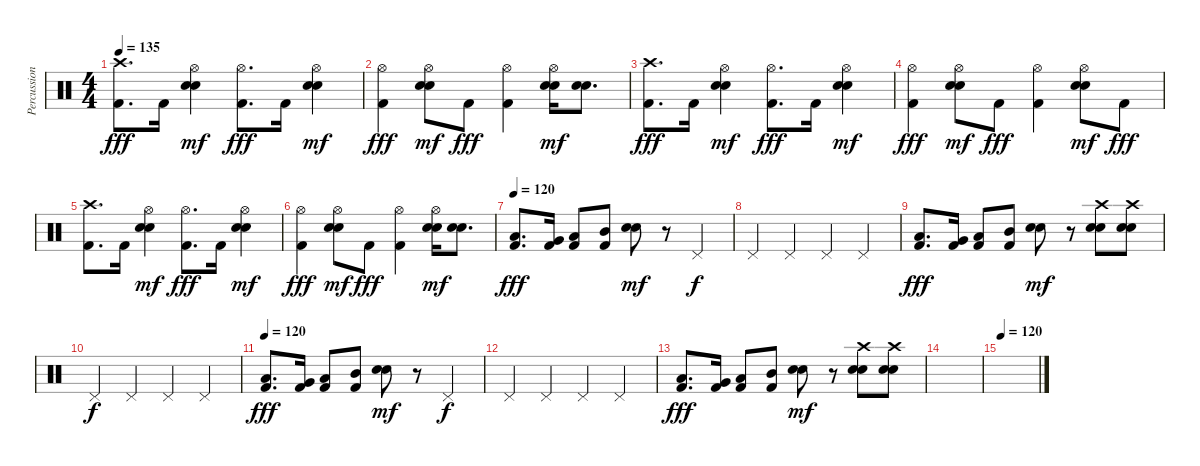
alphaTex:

\track ("Percussion" "Percussion") {instrument percussion}
\staff {score}
\articulation defaults
\ts (4 4)
\tempo 135
\clef neutral
\ks c
("Crash high (hit)" "Kick (hit) 2").8{d dy fff} "Kick (hit) 2".16 ("Hi-Hat (open)" "Electric Snare (hit)" "Snare (hit) 2").4{dy mf} ("Hi-Hat (open)" "Kick (hit) 2").8{d dy fff} "Kick (hit) 2".16 ("Hi-Hat (open)" "Electric Snare (hit)" "Snare (hit) 2").4{dy mf} |
("Hi-Hat (open)" "Kick (hit) 2").4{dy fff} ("Hi-Hat (open)" "Electric Snare (hit)" "Snare (hit) 2").8{dy mf} "Kick (hit) 2".8{dy fff} ("Hi-Hat (open)" "Kick (hit) 2").4 ("Hi-Hat (open)" "Electric Snare (hit)" "Snare (hit) 2").16{dy mf} ("Electric Snare (hit)" "Snare (hit) 2").8{d} |
("Crash high (hit)" "Kick (hit) 2").8{d dy fff} "Kick (hit) 2".16 ("Hi-Hat (open)" "Electric Snare (hit)" "Snare (hit) 2").4{dy mf} ("Hi-Hat (open)" "Kick (hit) 2").8{d dy fff} "Kick (hit) 2".16 ("Hi-Hat (open)" "Electric Snare (hit)" "Snare (hit) 2").4{dy mf} |
("Hi-Hat (open)" "Kick (hit) 2").4{dy fff} ("Hi-Hat (open)" "Electric Snare (hit)" "Snare (hit) 2").8{dy mf} "Kick (hit) 2".8{dy fff} ("Hi-Hat (open)" "Kick (hit) 2").4 ("Hi-Hat (open)" "Electric Snare (hit)" "Snare (hit) 2").8{dy mf} "Kick (hit) 2".8{dy fff} |
("Crash high (hit)" "Kick (hit) 2").8{d} "Kick (hit) 2".16 ("Hi-Hat (open)" "Electric Snare (hit)" "Snare (hit) 2").4{dy mf} ("Hi-Hat (open)" "Kick (hit) 2").8{d dy fff} "Kick (hit) 2".16 ("Hi-Hat (open)" "Electric Snare (hit)" "Snare (hit) 2").4{dy mf} |
("Hi-Hat (open)" "Kick (hit) 2").4{dy fff} ("Hi-Hat (open)" "Electric Snare (hit)" "Snare (hit) 2").8{dy mf} "Kick (hit) 2".8{dy fff} ("Hi-Hat (open)" "Kick (hit) 2").4 ("Hi-Hat (open)" "Electric Snare (hit)" "Snare (hit) 2").16{dy mf} ("Electric Snare (hit)" "Snare (hit) 2").8{d} |
\tempo 135
\tempo 120
("Low Floor Tom (hit)" "Kick (hit) 2").8{d dy fff} ("Very Low Tom (hit)" "Kick (hit) 2").16 ("Low Tom (hit)" "Kick (hit) 2").8 ("Mid Tom (hit)" "Kick (hit) 2").8 ("Electric Snare (hit)" "Snare (hit) 2").8{dy mf} r.8 "Pedal Hi-Hat (hit)".4{dy f} |
"Pedal Hi-Hat (hit)".4 "Pedal Hi-Hat (hit)".4 "Pedal Hi-Hat (hit)".4 "Pedal Hi-Hat (hit)".4 |
("Low Floor Tom (hit)" "Kick (hit) 2").8{d dy fff} ("Very Low Tom (hit)" "Kick (hit) 2").16 ("Low Tom (hit)" "Kick (hit) 2").8 ("Mid Tom (hit)" "Kick (hit) 2").8 ("Electric Snare (hit)" "Snare (hit) 2").8{dy mf} r.8 ("Crash high (hit)" "Electric Snare (hit)" "Snare (hit) 2").8 ("Crash high (hit)" "Electric Snare (hit)" "Snare (hit) 2").8 |
"Pedal Hi-Hat (hit)".4{dy f} "Pedal Hi-Hat (hit)".4 "Pedal Hi-Hat (hit)".4 "Pedal Hi-Hat (hit)".4 |
\tempo 120
("Low Floor Tom (hit)" "Kick (hit) 2").8{d dy fff} ("Very Low Tom (hit)" "Kick (hit) 2").16 ("Low Tom (hit)" "Kick (hit) 2").8 ("Mid Tom (hit)" "Kick (hit) 2").8 ("Electric Snare (hit)" "Snare (hit) 2").8{dy mf} r.8 "Pedal Hi-Hat (hit)".4{dy f} |
"Pedal Hi-Hat (hit)".4 "Pedal Hi-Hat (hit)".4 "Pedal Hi-Hat (hit)".4 "Pedal Hi-Hat (hit)".4 |
("Low Floor Tom (hit)" "Kick (hit) 2").8{d dy fff} ("Very Low Tom (hit)" "Kick (hit) 2").16 ("Low Tom (hit)" "Kick (hit) 2").8 ("Mid Tom (hit)" "Kick (hit) 2").8 ("Electric Snare (hit)" "Snare (hit) 2").8{dy mf} r.8 ("Crash high (hit)" "Electric Snare (hit)" "Snare (hit) 2").8 ("Crash high (hit)" "Electric Snare (hit)" "Snare (hit) 2").8 |
|
\tempo 120
